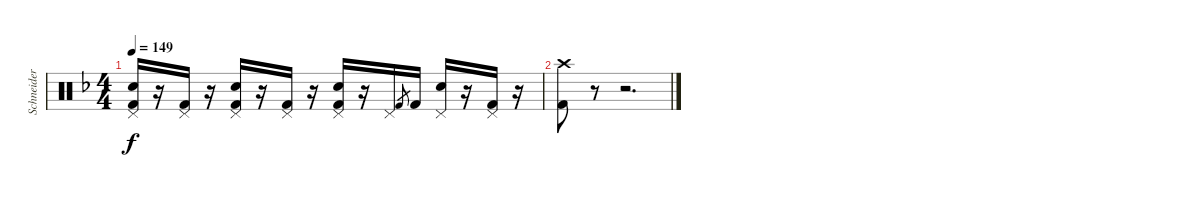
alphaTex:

\track ("Schneider" "Schneider") {instrument percussion}
\staff {score}
\articulation defaults
\ts (4 4)
\tempo 149
\clef neutral
\ks dminor
("Pedal Hi-Hat (hit)" "Snare (hit) 2" "Kick (hit) 2").16{dy f} r.16 ("Pedal Hi-Hat (hit)" "Kick (hit) 2").16 r.16 ("Pedal Hi-Hat (hit)" "Snare (hit) 2" "Kick (hit) 2").16 r.16 ("Pedal Hi-Hat (hit)" "Kick (hit) 2").16 r.16 ("Pedal Hi-Hat (hit)" "Snare (hit) 2" "Kick (hit) 2").16 r.16 "Pedal Hi-Hat (hit)".16 "Kick (hit) 2".8{gr} "Kick (hit) 2".16 ("Pedal Hi-Hat (hit)" "Snare (hit) 2").16 r.16 ("Pedal Hi-Hat (hit)" "Kick (hit) 2").16 r.16 |
("Crash high (hit)" "Kick (hit) 2").8 r.8 r.2{d}
